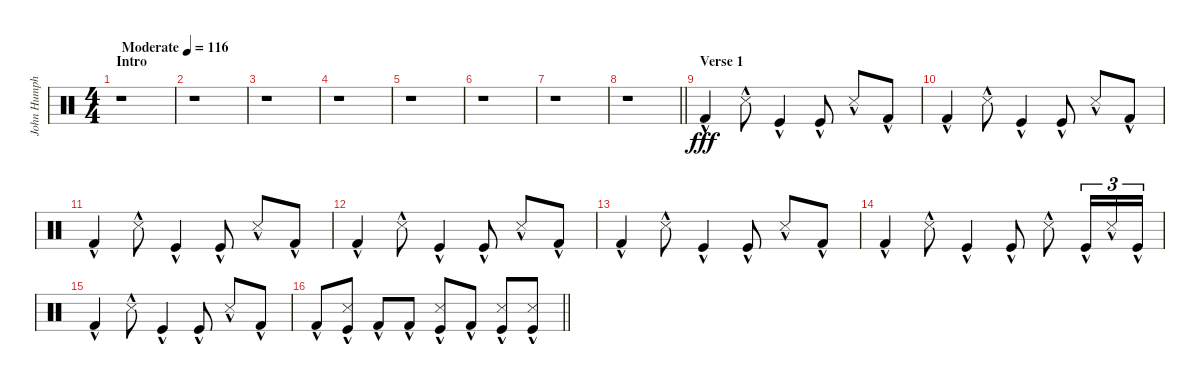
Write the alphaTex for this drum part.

\track ("John Humphrey (Percussions)" "John Humph") {instrument percussion}
\staff {score}
\articulation defaults
\ts (4 4)
\section ("" "Intro")
\tempo (116 "Moderate")
\clef neutral
\ks c
r.1{dy fff} |
r.1 |
r.1 |
r.1 |
r.1 |
r.1 |
r.1 |
\barLineRight lightlight
r.1 |
\section ("" "Verse 1")
"Kick (hit) 2"{hac}.4 "Snare (side stick) 3"{hac}.8 "Kick (hit)"{hac}.4 "Kick (hit)"{hac}.8 "Snare (side stick) 3"{hac}.8 "Kick (hit) 2"{hac}.8 |
"Kick (hit) 2"{hac}.4 "Snare (side stick) 3"{hac}.8 "Kick (hit)"{hac}.4 "Kick (hit)"{hac}.8 "Snare (side stick) 3"{hac}.8 "Kick (hit) 2"{hac}.8 |
"Kick (hit) 2"{hac}.4 "Snare (side stick) 3"{hac}.8 "Kick (hit)"{hac}.4 "Kick (hit)"{hac}.8 "Snare (side stick) 3"{hac}.8 "Kick (hit) 2"{hac}.8 |
"Kick (hit) 2"{hac}.4 "Snare (side stick) 3"{hac}.8 "Kick (hit)"{hac}.4 "Kick (hit)"{hac}.8 "Snare (side stick) 3"{hac}.8 "Kick (hit) 2"{hac}.8 |
"Kick (hit) 2"{hac}.4 "Snare (side stick) 3"{hac}.8 "Kick (hit)"{hac}.4 "Kick (hit)"{hac}.8 "Snare (side stick) 3"{hac}.8 "Kick (hit) 2"{hac}.8 |
"Kick (hit) 2"{hac}.4 "Snare (side stick) 3"{hac}.8 "Kick (hit)"{hac}.4 "Kick (hit)"{hac}.8 "Snare (side stick) 3"{hac}.8 "Kick (hit)"{hac}.16{tu (3 2)} "Snare (side stick) 3"{hac}.16{tu (3 2)} "Kick (hit)"{hac}.16{tu (3 2)} |
"Kick (hit) 2"{hac}.4 "Snare (side stick) 3"{hac}.8 "Kick (hit)"{hac}.4 "Kick (hit)"{hac}.8 "Snare (side stick) 3"{hac}.8 "Kick (hit) 2"{hac}.8 |
\barLineRight lightlight "Kick (hit) 2"{hac}.8
("Snare (side stick) 3"{hac} "Kick (hit)"{hac}).8 "Kick (hit) 2"{hac}.8 "Kick (hit) 2"{hac}.8 ("Snare (side stick) 3"{hac} "Kick (hit)"{hac}).8 "Kick (hit) 2"{hac}.8 ("Snare (side stick) 3"{hac} "Kick (hit)"{hac}).8 ("Snare (side stick) 3"{hac} "Kick (hit)"{hac}).8
